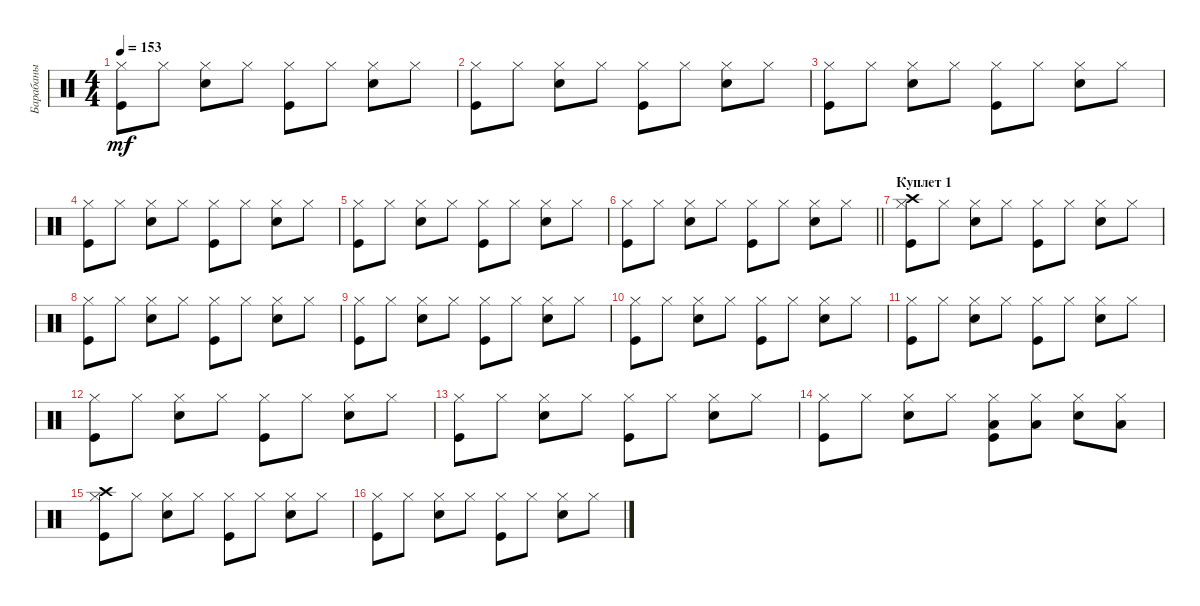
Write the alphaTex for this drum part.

\track ("Барабаны" "Барабаны") {instrument percussion}
\staff {score}
\articulation defaults
\ts (4 4)
\tempo 153
\clef neutral
\ks c
("Kick (hit)" "Hi-Hat (closed)").8{dy mf} "Hi-Hat (closed)".8 ("Snare (hit) 2" "Hi-Hat (closed)").8 "Hi-Hat (closed)".8 ("Kick (hit)" "Hi-Hat (closed)").8 "Hi-Hat (closed)".8 ("Snare (hit) 2" "Hi-Hat (closed)").8 "Hi-Hat (closed)".8 |
("Kick (hit)" "Hi-Hat (closed)").8 "Hi-Hat (closed)".8 ("Snare (hit) 2" "Hi-Hat (closed)").8 "Hi-Hat (closed)".8 ("Kick (hit)" "Hi-Hat (closed)").8 "Hi-Hat (closed)".8 ("Snare (hit) 2" "Hi-Hat (closed)").8 "Hi-Hat (closed)".8 |
("Kick (hit)" "Hi-Hat (closed)").8 "Hi-Hat (closed)".8 ("Snare (hit) 2" "Hi-Hat (closed)").8 "Hi-Hat (closed)".8 ("Kick (hit)" "Hi-Hat (closed)").8 "Hi-Hat (closed)".8 ("Snare (hit) 2" "Hi-Hat (closed)").8 "Hi-Hat (closed)".8 |
("Kick (hit)" "Hi-Hat (closed)").8 "Hi-Hat (closed)".8 ("Snare (hit) 2" "Hi-Hat (closed)").8 "Hi-Hat (closed)".8 ("Kick (hit)" "Hi-Hat (closed)").8 "Hi-Hat (closed)".8 ("Snare (hit) 2" "Hi-Hat (closed)").8 "Hi-Hat (closed)".8 |
("Kick (hit)" "Hi-Hat (closed)").8 "Hi-Hat (closed)".8 ("Snare (hit) 2" "Hi-Hat (closed)").8 "Hi-Hat (closed)".8 ("Kick (hit)" "Hi-Hat (closed)").8 "Hi-Hat (closed)".8 ("Snare (hit) 2" "Hi-Hat (closed)").8 "Hi-Hat (closed)".8 |
\barLineRight lightlight
("Kick (hit)" "Hi-Hat (closed)").8 "Hi-Hat (closed)".8 ("Snare (hit) 2" "Hi-Hat (closed)").8 "Hi-Hat (closed)".8 ("Kick (hit)" "Hi-Hat (closed)").8 "Hi-Hat (closed)".8 ("Snare (hit) 2" "Hi-Hat (closed)").8 "Hi-Hat (closed)".8 |
\section ("" "Куплет 1")
("Kick (hit)" "Hi-Hat (closed)" "Crash high (hit)").8 "Hi-Hat (closed)".8 ("Snare (hit) 2" "Hi-Hat (closed)").8 "Hi-Hat (closed)".8 ("Kick (hit)" "Hi-Hat (closed)").8 "Hi-Hat (closed)".8 ("Snare (hit) 2" "Hi-Hat (closed)").8 "Hi-Hat (closed)".8 |
("Kick (hit)" "Hi-Hat (closed)").8 "Hi-Hat (closed)".8 ("Snare (hit) 2" "Hi-Hat (closed)").8 "Hi-Hat (closed)".8 ("Kick (hit)" "Hi-Hat (closed)").8 "Hi-Hat (closed)".8 ("Snare (hit) 2" "Hi-Hat (closed)").8 "Hi-Hat (closed)".8 |
("Kick (hit)" "Hi-Hat (closed)").8 "Hi-Hat (closed)".8 ("Snare (hit) 2" "Hi-Hat (closed)").8 "Hi-Hat (closed)".8 ("Kick (hit)" "Hi-Hat (closed)").8 "Hi-Hat (closed)".8 ("Snare (hit) 2" "Hi-Hat (closed)").8 "Hi-Hat (closed)".8 |
("Kick (hit)" "Hi-Hat (closed)").8 "Hi-Hat (closed)".8 ("Snare (hit) 2" "Hi-Hat (closed)").8 "Hi-Hat (closed)".8 ("Kick (hit)" "Hi-Hat (closed)").8 "Hi-Hat (closed)".8 ("Snare (hit) 2" "Hi-Hat (closed)").8 "Hi-Hat (closed)".8 |
("Kick (hit)" "Hi-Hat (closed)").8 "Hi-Hat (closed)".8 ("Snare (hit) 2" "Hi-Hat (closed)").8 "Hi-Hat (closed)".8 ("Kick (hit)" "Hi-Hat (closed)").8 "Hi-Hat (closed)".8 ("Snare (hit) 2" "Hi-Hat (closed)").8 "Hi-Hat (closed)".8 |
("Kick (hit)" "Hi-Hat (closed)").8 "Hi-Hat (closed)".8 ("Snare (hit) 2" "Hi-Hat (closed)").8 "Hi-Hat (closed)".8 ("Kick (hit)" "Hi-Hat (closed)").8 "Hi-Hat (closed)".8 ("Snare (hit) 2" "Hi-Hat (closed)").8 "Hi-Hat (closed)".8 |
("Kick (hit)" "Hi-Hat (closed)").8 "Hi-Hat (closed)".8 ("Snare (hit) 2" "Hi-Hat (closed)").8 "Hi-Hat (closed)".8 ("Kick (hit)" "Hi-Hat (closed)").8 "Hi-Hat (closed)".8 ("Snare (hit) 2" "Hi-Hat (closed)").8 "Hi-Hat (closed)".8 |
("Kick (hit)" "Hi-Hat (closed)").8 "Hi-Hat (closed)".8 ("Snare (hit) 2" "Hi-Hat (closed)").8 "Hi-Hat (closed)".8 ("Kick (hit)" "Hi-Hat (closed)" "Low Tom (hit)").8 ("Hi-Hat (closed)" "Low Tom (hit)").8 ("Snare (hit) 2" "Hi-Hat (closed)").8 ("Hi-Hat (closed)" "Low Tom (hit)").8 |
("Kick (hit)" "Hi-Hat (closed)" "Crash high (hit)").8 "Hi-Hat (closed)".8 ("Snare (hit) 2" "Hi-Hat (closed)").8 "Hi-Hat (closed)".8 ("Kick (hit)" "Hi-Hat (closed)").8 "Hi-Hat (closed)".8 ("Snare (hit) 2" "Hi-Hat (closed)").8 "Hi-Hat (closed)".8 |
("Kick (hit)" "Hi-Hat (closed)").8 "Hi-Hat (closed)".8 ("Snare (hit) 2" "Hi-Hat (closed)").8 "Hi-Hat (closed)".8 ("Kick (hit)" "Hi-Hat (closed)").8 "Hi-Hat (closed)".8 ("Snare (hit) 2" "Hi-Hat (closed)").8 "Hi-Hat (closed)".8
